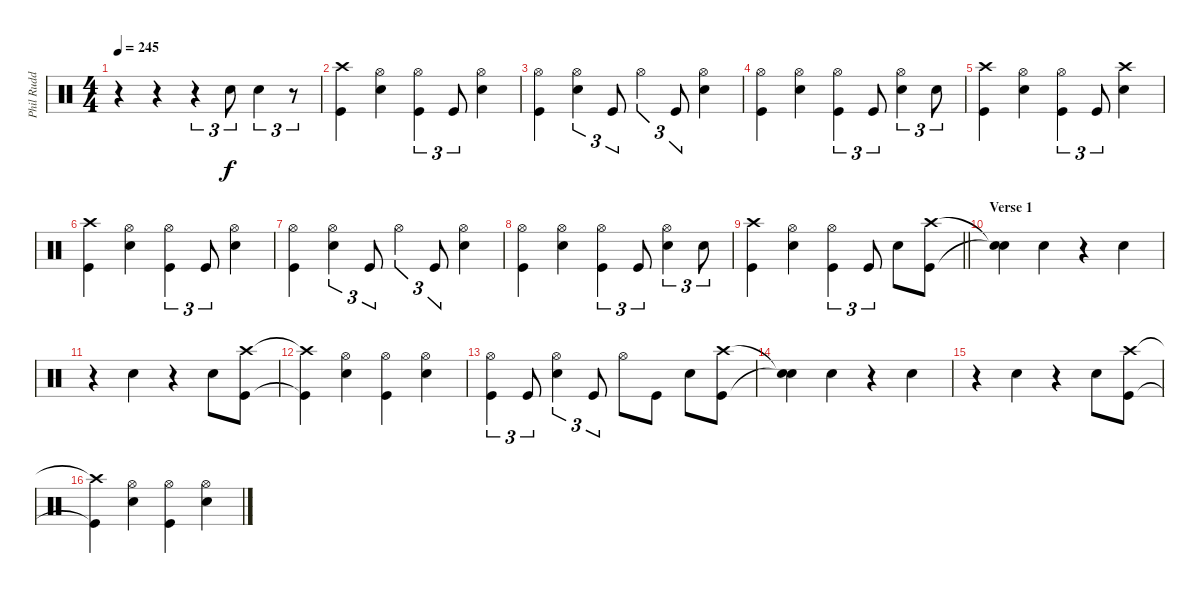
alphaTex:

\track ("Phil Rudd" "Phil Rudd") {instrument percussion}
\staff {score}
\articulation defaults
\ts (4 4)
\tempo 245
\clef neutral
\ks c
r.4{dy f} r.4 r.4{tu (3 2)} "Snare (hit) 2".8{tu (3 2)} "Snare (hit) 2".4{tu (3 2)} r.8{tu (3 2)} |
("Crash high (hit)" "Kick (hit)").4 ("Hi-Hat (open)" "Snare (hit) 2").4 ("Hi-Hat (open)" "Kick (hit)").4{tu (3 2)} "Kick (hit)".8{tu (3 2)} ("Hi-Hat (open)" "Snare (hit) 2").4 |
("Hi-Hat (open)" "Kick (hit)").4 ("Hi-Hat (open)" "Snare (hit) 2").4{tu (3 2)} "Kick (hit)".8{tu (3 2)} "Hi-Hat (open)".4{tu (3 2)} "Kick (hit)".8{tu (3 2)} ("Hi-Hat (open)" "Snare (hit) 2").4 |
("Hi-Hat (open)" "Kick (hit)").4 ("Hi-Hat (open)" "Snare (hit) 2").4 ("Hi-Hat (open)" "Kick (hit)").4{tu (3 2)} "Kick (hit)".8{tu (3 2)} ("Hi-Hat (open)" "Snare (hit) 2").4{tu (3 2)} "Snare (hit) 2".8{tu (3 2)} |
("Crash high (hit)" "Kick (hit)").4 ("Hi-Hat (open)" "Snare (hit) 2").4 ("Hi-Hat (open)" "Kick (hit)").4{tu (3 2)} "Kick (hit)".8{tu (3 2)} ("Crash high (hit)" "Snare (hit) 2").4 |
("Crash high (hit)" "Kick (hit)").4 ("Hi-Hat (open)" "Snare (hit) 2").4 ("Hi-Hat (open)" "Kick (hit)").4{tu (3 2)} "Kick (hit)".8{tu (3 2)} ("Hi-Hat (open)" "Snare (hit) 2").4 |
("Hi-Hat (open)" "Kick (hit)").4 ("Hi-Hat (open)" "Snare (hit) 2").4{tu (3 2)} "Kick (hit)".8{tu (3 2)} "Hi-Hat (open)".4{tu (3 2)} "Kick (hit)".8{tu (3 2)} ("Hi-Hat (open)" "Snare (hit) 2").4 |
("Hi-Hat (open)" "Kick (hit)").4 ("Hi-Hat (open)" "Snare (hit) 2").4 ("Hi-Hat (open)" "Kick (hit)").4{tu (3 2)} "Kick (hit)".8{tu (3 2)} ("Hi-Hat (open)" "Snare (hit) 2").4{tu (3 2)} "Snare (hit) 2".8{tu (3 2)} |
\barLineRight lightlight
("Crash high (hit)" "Kick (hit)").4 ("Hi-Hat (open)" "Snare (hit) 2").4 ("Hi-Hat (open)" "Kick (hit)").4{tu (3 2)} "Kick (hit)".8{tu (3 2)} "Snare (hit) 2".8 ("Crash high (hit)" "Kick (hit)").8 |
\section ("" "Verse 1")
("Snare (hit)"{t} "Snare (hit)"{t}).4 "Snare (hit) 2".4 r.4 "Snare (hit) 2".4 |
r.4 "Snare (hit) 2".4 r.4 "Snare (hit) 2".8 ("Crash high (hit)" "Kick (hit)").8 |
("Crash high (hit)"{t} "Kick (hit)"{t}).4 ("Hi-Hat (open)" "Snare (hit) 2").4 ("Hi-Hat (open)" "Kick (hit)").4 ("Hi-Hat (open)" "Snare (hit) 2").4 |
("Hi-Hat (open)" "Kick (hit)").4{tu (3 2)} "Kick (hit)".8{tu (3 2)} ("Hi-Hat (open)" "Snare (hit) 2").4{tu (3 2)} "Kick (hit)".8{tu (3 2)} "Hi-Hat (open)".8 "Kick (hit)".8 "Snare (hit) 2".8 ("Crash high (hit)" "Kick (hit)").8 |
("Snare (hit)"{t} "Snare (hit)"{t}).4 "Snare (hit) 2".4 r.4 "Snare (hit) 2".4 |
r.4 "Snare (hit) 2".4 r.4 "Snare (hit) 2".8 ("Crash high (hit)" "Kick (hit)").8 |
("Crash high (hit)"{t} "Kick (hit)"{t}).4 ("Hi-Hat (open)" "Snare (hit) 2").4 ("Hi-Hat (open)" "Kick (hit)").4 ("Hi-Hat (open)" "Snare (hit) 2").4
